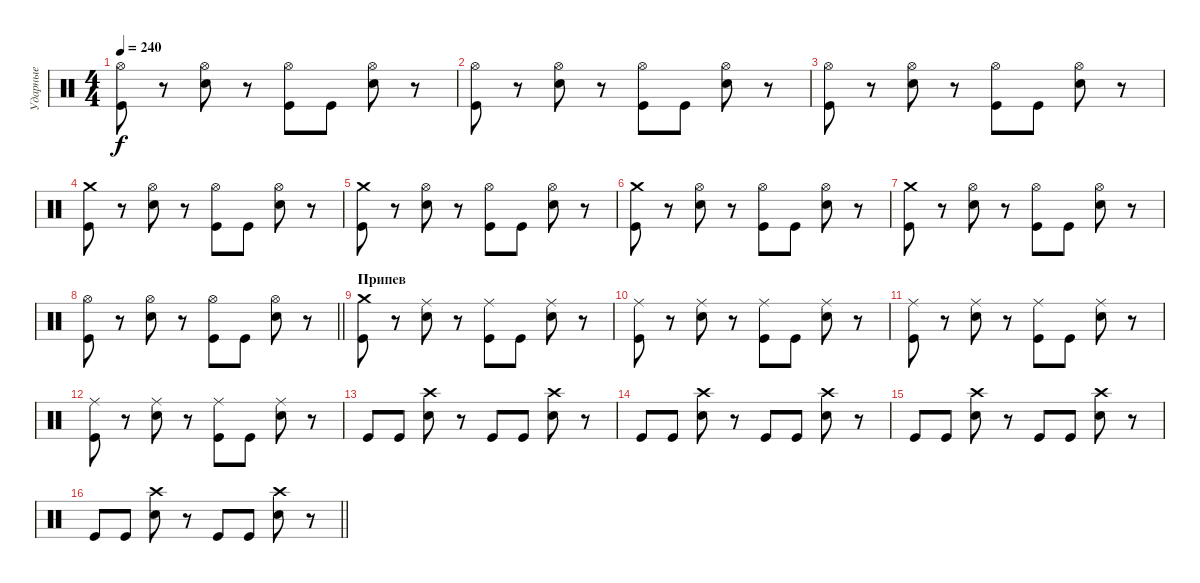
\track ("Ударные" "Ударные") {instrument percussion}
\staff {score}
\articulation defaults
\ts (4 4)
\tempo 240
\clef neutral
\ks c
("Hi-Hat (open)" "Kick (hit)").8{dy f} r.8 ("Hi-Hat (open)" "Electric Snare (hit)").8 r.8 ("Hi-Hat (open)" "Kick (hit)").8 "Kick (hit)".8 ("Hi-Hat (open)" "Electric Snare (hit)").8 r.8 |
("Hi-Hat (open)" "Kick (hit)").8 r.8 ("Hi-Hat (open)" "Electric Snare (hit)").8 r.8 ("Hi-Hat (open)" "Kick (hit)").8 "Kick (hit)".8 ("Hi-Hat (open)" "Electric Snare (hit)").8 r.8 |
("Hi-Hat (open)" "Kick (hit)").8 r.8 ("Hi-Hat (open)" "Electric Snare (hit)").8 r.8 ("Hi-Hat (open)" "Kick (hit)").8 "Kick (hit)".8 ("Hi-Hat (open)" "Electric Snare (hit)").8 r.8 |
("Crash medium (hit)" "Kick (hit)").8 r.8 ("Hi-Hat (open)" "Electric Snare (hit)").8 r.8 ("Hi-Hat (open)" "Kick (hit)").8 "Kick (hit)".8 ("Hi-Hat (open)" "Electric Snare (hit)").8 r.8 |
("Crash medium (hit)" "Kick (hit)").8 r.8 ("Hi-Hat (open)" "Electric Snare (hit)").8 r.8 ("Hi-Hat (open)" "Kick (hit)").8 "Kick (hit)".8 ("Hi-Hat (open)" "Electric Snare (hit)").8 r.8 |
("Crash medium (hit)" "Kick (hit)").8 r.8 ("Hi-Hat (open)" "Electric Snare (hit)").8 r.8 ("Hi-Hat (open)" "Kick (hit)").8 "Kick (hit)".8 ("Hi-Hat (open)" "Electric Snare (hit)").8 r.8 |
("Crash medium (hit)" "Kick (hit)").8 r.8 ("Hi-Hat (open)" "Electric Snare (hit)").8 r.8 ("Hi-Hat (open)" "Kick (hit)").8 "Kick (hit)".8 ("Hi-Hat (open)" "Electric Snare (hit)").8 r.8 |
\barLineRight lightlight
("Hi-Hat (open)" "Kick (hit)").8 r.8 ("Hi-Hat (open)" "Electric Snare (hit)").8 r.8 ("Hi-Hat (open)" "Kick (hit)").8 "Kick (hit)".8 ("Hi-Hat (open)" "Electric Snare (hit)").8 r.8 |
\section ("" "Припев")
("Crash medium (hit)" "Kick (hit)").8 r.8 ("Ride (middle)" "Electric Snare (hit)").8 r.8 ("Ride (middle)" "Kick (hit)").8 "Kick (hit)".8 ("Ride (middle)" "Electric Snare (hit)").8 r.8 |
("Ride (middle)" "Kick (hit)").8 r.8 ("Ride (middle)" "Electric Snare (hit)").8 r.8 ("Ride (middle)" "Kick (hit)").8 "Kick (hit)".8 ("Ride (middle)" "Electric Snare (hit)").8 r.8 |
("Ride (middle)" "Kick (hit)").8 r.8 ("Ride (middle)" "Electric Snare (hit)").8 r.8 ("Ride (middle)" "Kick (hit)").8 "Kick (hit)".8 ("Ride (middle)" "Electric Snare (hit)").8 r.8 |
("Ride (middle)" "Kick (hit)").8 r.8 ("Ride (middle)" "Electric Snare (hit)").8 r.8 ("Ride (middle)" "Kick (hit)").8 "Kick (hit)".8 ("Ride (middle)" "Electric Snare (hit)").8 r.8 |
"Kick (hit)".8 "Kick (hit)".8 ("Crash high (hit)" "Electric Snare (hit)").8 r.8 "Kick (hit)".8 "Kick (hit)".8 ("Crash high (hit)" "Electric Snare (hit)").8 r.8 |
"Kick (hit)".8 "Kick (hit)".8 ("Crash high (hit)" "Electric Snare (hit)").8 r.8 "Kick (hit)".8 "Kick (hit)".8 ("Crash high (hit)" "Electric Snare (hit)").8 r.8 |
"Kick (hit)".8 "Kick (hit)".8 ("Crash high (hit)" "Electric Snare (hit)").8 r.8 "Kick (hit)".8 "Kick (hit)".8 ("Crash high (hit)" "Electric Snare (hit)").8 r.8 |
\barLineRight lightlight "Kick (hit)".8 "Kick (hit)".8
("Crash high (hit)" "Electric Snare (hit)").8 r.8 "Kick (hit)".8 "Kick (hit)".8 ("Crash high (hit)" "Electric Snare (hit)").8 r.8
